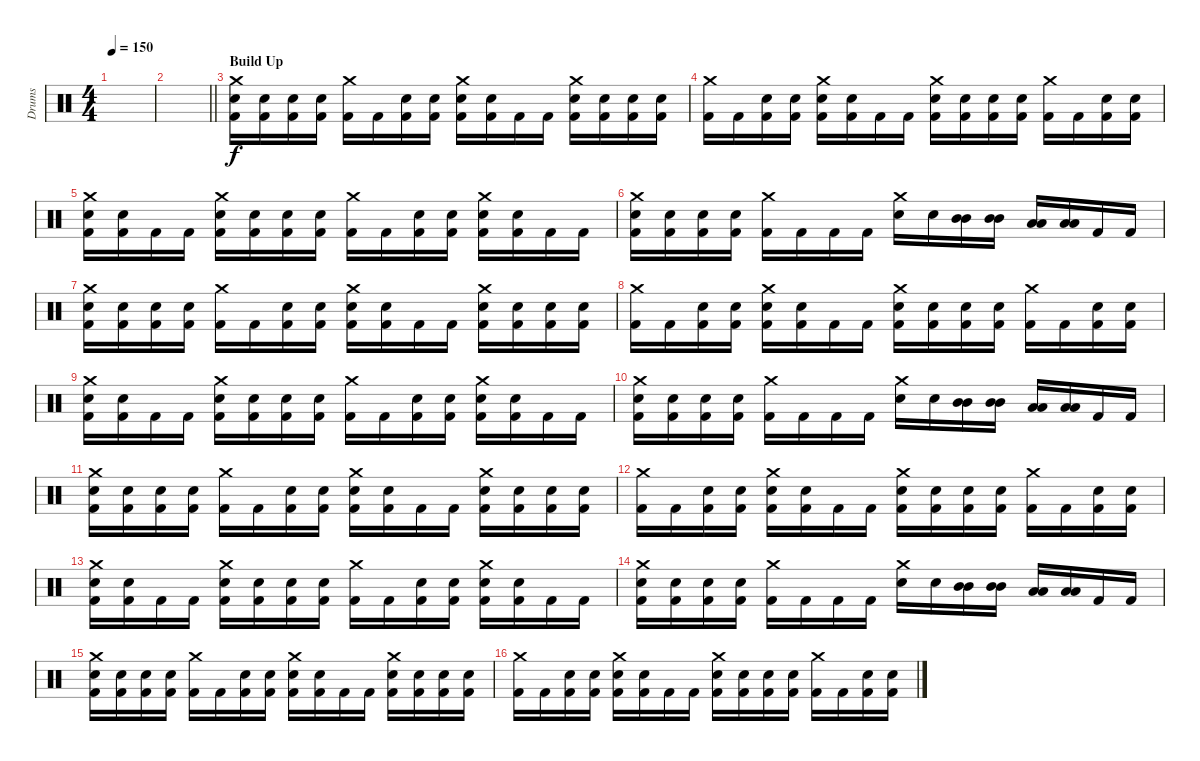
\track ("Drums" "Drums") {instrument percussion}
\staff {score}
\articulation defaults
\ts (4 4)
\tempo 150
\clef neutral
\ks c
|
\barLineRight lightlight
|
\section ("" "Build Up")
("Crash medium (hit)" "Electric Snare (hit)" "Kick (hit) 2").16 ("Electric Snare (hit)" "Kick (hit) 2").16 ("Electric Snare (hit)" "Kick (hit) 2").16 ("Electric Snare (hit)" "Kick (hit) 2").16 ("Crash medium (hit)" "Kick (hit) 2").16 "Kick (hit) 2".16 ("Electric Snare (hit)" "Kick (hit) 2").16 ("Electric Snare (hit)" "Kick (hit) 2").16 ("Crash medium (hit)" "Electric Snare (hit)" "Kick (hit) 2").16 ("Electric Snare (hit)" "Kick (hit) 2").16 "Kick (hit) 2".16 "Kick (hit) 2".16 ("Crash medium (hit)" "Electric Snare (hit)" "Kick (hit) 2").16 ("Electric Snare (hit)" "Kick (hit) 2").16 ("Electric Snare (hit)" "Kick (hit) 2").16 ("Electric Snare (hit)" "Kick (hit) 2").16 |
("Crash medium (hit)" "Kick (hit) 2").16 "Kick (hit) 2".16 ("Electric Snare (hit)" "Kick (hit) 2").16 ("Electric Snare (hit)" "Kick (hit) 2").16 ("Crash medium (hit)" "Electric Snare (hit)" "Kick (hit) 2").16 ("Electric Snare (hit)" "Kick (hit) 2").16 "Kick (hit) 2".16 "Kick (hit) 2".16 ("Crash medium (hit)" "Electric Snare (hit)" "Kick (hit) 2").16 ("Electric Snare (hit)" "Kick (hit) 2").16 ("Electric Snare (hit)" "Kick (hit) 2").16 ("Electric Snare (hit)" "Kick (hit) 2").16 ("Crash medium (hit)" "Kick (hit) 2").16 "Kick (hit) 2".16 ("Electric Snare (hit)" "Kick (hit) 2").16 ("Electric Snare (hit)" "Kick (hit) 2").16 |
("Crash medium (hit)" "Electric Snare (hit)" "Kick (hit) 2").16 ("Electric Snare (hit)" "Kick (hit) 2").16 "Kick (hit) 2".16 "Kick (hit) 2".16 ("Crash medium (hit)" "Electric Snare (hit)" "Kick (hit) 2").16 ("Electric Snare (hit)" "Kick (hit) 2").16 ("Electric Snare (hit)" "Kick (hit) 2").16 ("Electric Snare (hit)" "Kick (hit) 2").16 ("Crash medium (hit)" "Kick (hit) 2").16 "Kick (hit) 2".16 ("Electric Snare (hit)" "Kick (hit) 2").16 ("Electric Snare (hit)" "Kick (hit) 2").16 ("Crash medium (hit)" "Electric Snare (hit)" "Kick (hit) 2").16 ("Electric Snare (hit)" "Kick (hit) 2").16 "Kick (hit) 2".16 "Kick (hit) 2".16 |
("Crash medium (hit)" "Electric Snare (hit)" "Kick (hit) 2").16 ("Electric Snare (hit)" "Kick (hit) 2").16 ("Electric Snare (hit)" "Kick (hit) 2").16 ("Electric Snare (hit)" "Kick (hit) 2").16 ("Crash medium (hit)" "Kick (hit) 2").16 "Kick (hit) 2".16 "Kick (hit) 2".16 "Kick (hit) 2".16 ("Crash medium (hit)" "Electric Snare (hit)").16 "Electric Snare (hit)".16 ("Mid Tom (hit)" "Mid Tom (hit)").16 ("Mid Tom (hit)" "Mid Tom (hit)").16 ("Low Tom (hit)" "Low Tom (hit)").16 ("Low Tom (hit)" "Low Tom (hit)").16 "Kick (hit) 2".16 "Kick (hit) 2".16 |
("Crash medium (hit)" "Electric Snare (hit)" "Kick (hit) 2").16 ("Electric Snare (hit)" "Kick (hit) 2").16 ("Electric Snare (hit)" "Kick (hit) 2").16 ("Electric Snare (hit)" "Kick (hit) 2").16 ("Crash medium (hit)" "Kick (hit) 2").16 "Kick (hit) 2".16 ("Electric Snare (hit)" "Kick (hit) 2").16 ("Electric Snare (hit)" "Kick (hit) 2").16 ("Crash medium (hit)" "Electric Snare (hit)" "Kick (hit) 2").16 ("Electric Snare (hit)" "Kick (hit) 2").16 "Kick (hit) 2".16 "Kick (hit) 2".16 ("Crash medium (hit)" "Electric Snare (hit)" "Kick (hit) 2").16 ("Electric Snare (hit)" "Kick (hit) 2").16 ("Electric Snare (hit)" "Kick (hit) 2").16 ("Electric Snare (hit)" "Kick (hit) 2").16 |
("Crash medium (hit)" "Kick (hit) 2").16 "Kick (hit) 2".16 ("Electric Snare (hit)" "Kick (hit) 2").16 ("Electric Snare (hit)" "Kick (hit) 2").16 ("Crash medium (hit)" "Electric Snare (hit)" "Kick (hit) 2").16 ("Electric Snare (hit)" "Kick (hit) 2").16 "Kick (hit) 2".16 "Kick (hit) 2".16 ("Crash medium (hit)" "Electric Snare (hit)" "Kick (hit) 2").16 ("Electric Snare (hit)" "Kick (hit) 2").16 ("Electric Snare (hit)" "Kick (hit) 2").16 ("Electric Snare (hit)" "Kick (hit) 2").16 ("Crash medium (hit)" "Kick (hit) 2").16 "Kick (hit) 2".16 ("Electric Snare (hit)" "Kick (hit) 2").16 ("Electric Snare (hit)" "Kick (hit) 2").16 |
("Crash medium (hit)" "Electric Snare (hit)" "Kick (hit) 2").16 ("Electric Snare (hit)" "Kick (hit) 2").16 "Kick (hit) 2".16 "Kick (hit) 2".16 ("Crash medium (hit)" "Electric Snare (hit)" "Kick (hit) 2").16 ("Electric Snare (hit)" "Kick (hit) 2").16 ("Electric Snare (hit)" "Kick (hit) 2").16 ("Electric Snare (hit)" "Kick (hit) 2").16 ("Crash medium (hit)" "Kick (hit) 2").16 "Kick (hit) 2".16 ("Electric Snare (hit)" "Kick (hit) 2").16 ("Electric Snare (hit)" "Kick (hit) 2").16 ("Crash medium (hit)" "Electric Snare (hit)" "Kick (hit) 2").16 ("Electric Snare (hit)" "Kick (hit) 2").16 "Kick (hit) 2".16 "Kick (hit) 2".16 |
("Crash medium (hit)" "Electric Snare (hit)" "Kick (hit) 2").16 ("Electric Snare (hit)" "Kick (hit) 2").16 ("Electric Snare (hit)" "Kick (hit) 2").16 ("Electric Snare (hit)" "Kick (hit) 2").16 ("Crash medium (hit)" "Kick (hit) 2").16 "Kick (hit) 2".16 "Kick (hit) 2".16 "Kick (hit) 2".16 ("Crash medium (hit)" "Electric Snare (hit)").16 "Electric Snare (hit)".16 ("Mid Tom (hit)" "Mid Tom (hit)").16 ("Mid Tom (hit)" "Mid Tom (hit)").16 ("Low Tom (hit)" "Low Tom (hit)").16 ("Low Tom (hit)" "Low Tom (hit)").16 "Kick (hit) 2".16 "Kick (hit) 2".16 |
("Crash medium (hit)" "Electric Snare (hit)" "Kick (hit) 2").16 ("Electric Snare (hit)" "Kick (hit) 2").16 ("Electric Snare (hit)" "Kick (hit) 2").16 ("Electric Snare (hit)" "Kick (hit) 2").16 ("Crash medium (hit)" "Kick (hit) 2").16 "Kick (hit) 2".16 ("Electric Snare (hit)" "Kick (hit) 2").16 ("Electric Snare (hit)" "Kick (hit) 2").16 ("Crash medium (hit)" "Electric Snare (hit)" "Kick (hit) 2").16 ("Electric Snare (hit)" "Kick (hit) 2").16 "Kick (hit) 2".16 "Kick (hit) 2".16 ("Crash medium (hit)" "Electric Snare (hit)" "Kick (hit) 2").16 ("Electric Snare (hit)" "Kick (hit) 2").16 ("Electric Snare (hit)" "Kick (hit) 2").16 ("Electric Snare (hit)" "Kick (hit) 2").16 |
("Crash medium (hit)" "Kick (hit) 2").16 "Kick (hit) 2".16 ("Electric Snare (hit)" "Kick (hit) 2").16 ("Electric Snare (hit)" "Kick (hit) 2").16 ("Crash medium (hit)" "Electric Snare (hit)" "Kick (hit) 2").16 ("Electric Snare (hit)" "Kick (hit) 2").16 "Kick (hit) 2".16 "Kick (hit) 2".16 ("Crash medium (hit)" "Electric Snare (hit)" "Kick (hit) 2").16 ("Electric Snare (hit)" "Kick (hit) 2").16 ("Electric Snare (hit)" "Kick (hit) 2").16 ("Electric Snare (hit)" "Kick (hit) 2").16 ("Crash medium (hit)" "Kick (hit) 2").16 "Kick (hit) 2".16 ("Electric Snare (hit)" "Kick (hit) 2").16 ("Electric Snare (hit)" "Kick (hit) 2").16 |
("Crash medium (hit)" "Electric Snare (hit)" "Kick (hit) 2").16 ("Electric Snare (hit)" "Kick (hit) 2").16 "Kick (hit) 2".16 "Kick (hit) 2".16 ("Crash medium (hit)" "Electric Snare (hit)" "Kick (hit) 2").16 ("Electric Snare (hit)" "Kick (hit) 2").16 ("Electric Snare (hit)" "Kick (hit) 2").16 ("Electric Snare (hit)" "Kick (hit) 2").16 ("Crash medium (hit)" "Kick (hit) 2").16 "Kick (hit) 2".16 ("Electric Snare (hit)" "Kick (hit) 2").16 ("Electric Snare (hit)" "Kick (hit) 2").16 ("Crash medium (hit)" "Electric Snare (hit)" "Kick (hit) 2").16 ("Electric Snare (hit)" "Kick (hit) 2").16 "Kick (hit) 2".16 "Kick (hit) 2".16 |
("Crash medium (hit)" "Electric Snare (hit)" "Kick (hit) 2").16 ("Electric Snare (hit)" "Kick (hit) 2").16 ("Electric Snare (hit)" "Kick (hit) 2").16 ("Electric Snare (hit)" "Kick (hit) 2").16 ("Crash medium (hit)" "Kick (hit) 2").16 "Kick (hit) 2".16 "Kick (hit) 2".16 "Kick (hit) 2".16 ("Crash medium (hit)" "Electric Snare (hit)").16 "Electric Snare (hit)".16 ("Mid Tom (hit)" "Mid Tom (hit)").16 ("Mid Tom (hit)" "Mid Tom (hit)").16 ("Low Tom (hit)" "Low Tom (hit)").16 ("Low Tom (hit)" "Low Tom (hit)").16 "Kick (hit) 2".16 "Kick (hit) 2".16 |
("Crash medium (hit)" "Electric Snare (hit)" "Kick (hit) 2").16 ("Electric Snare (hit)" "Kick (hit) 2").16 ("Electric Snare (hit)" "Kick (hit) 2").16 ("Electric Snare (hit)" "Kick (hit) 2").16 ("Crash medium (hit)" "Kick (hit) 2").16 "Kick (hit) 2".16 ("Electric Snare (hit)" "Kick (hit) 2").16 ("Electric Snare (hit)" "Kick (hit) 2").16 ("Crash medium (hit)" "Electric Snare (hit)" "Kick (hit) 2").16 ("Electric Snare (hit)" "Kick (hit) 2").16 "Kick (hit) 2".16 "Kick (hit) 2".16 ("Crash medium (hit)" "Electric Snare (hit)" "Kick (hit) 2").16 ("Electric Snare (hit)" "Kick (hit) 2").16 ("Electric Snare (hit)" "Kick (hit) 2").16 ("Electric Snare (hit)" "Kick (hit) 2").16 |
("Crash medium (hit)" "Kick (hit) 2").16 "Kick (hit) 2".16 ("Electric Snare (hit)" "Kick (hit) 2").16 ("Electric Snare (hit)" "Kick (hit) 2").16 ("Crash medium (hit)" "Electric Snare (hit)" "Kick (hit) 2").16 ("Electric Snare (hit)" "Kick (hit) 2").16 "Kick (hit) 2".16 "Kick (hit) 2".16 ("Crash medium (hit)" "Electric Snare (hit)" "Kick (hit) 2").16 ("Electric Snare (hit)" "Kick (hit) 2").16 ("Electric Snare (hit)" "Kick (hit) 2").16 ("Electric Snare (hit)" "Kick (hit) 2").16 ("Crash medium (hit)" "Kick (hit) 2").16 "Kick (hit) 2".16 ("Electric Snare (hit)" "Kick (hit) 2").16 ("Electric Snare (hit)" "Kick (hit) 2").16
